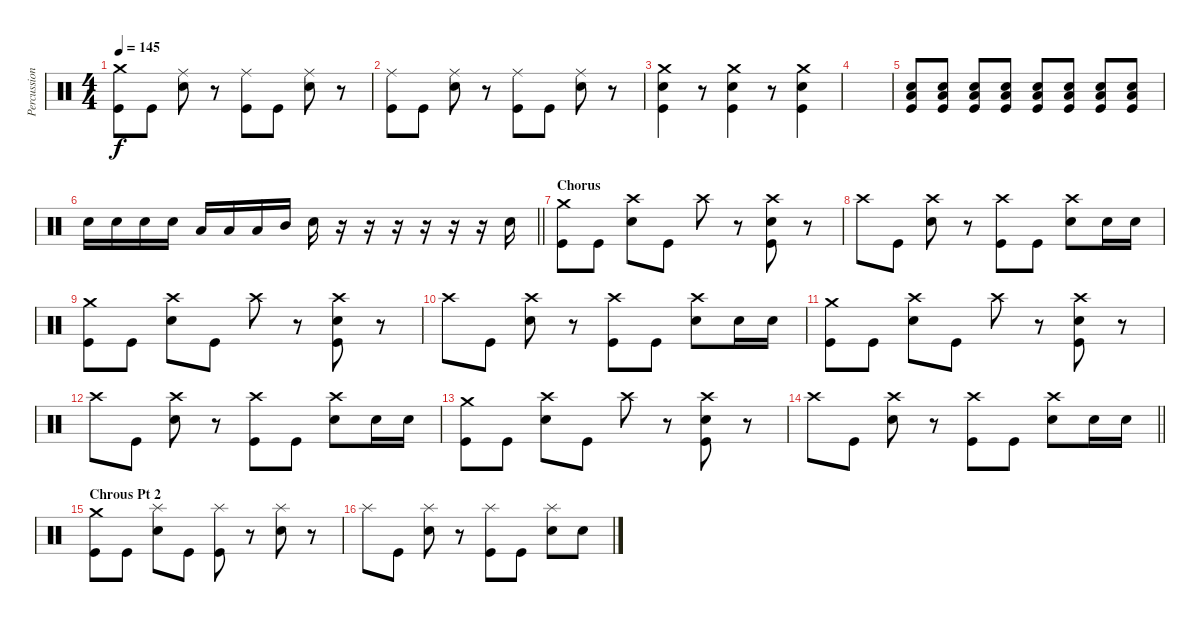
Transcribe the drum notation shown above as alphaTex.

\track ("Percussion" "Percussion") {instrument percussion}
\staff {score}
\articulation defaults
\ts (4 4)
\tempo 145
\clef neutral
\ks c
("Crash medium (hit)" "Kick (hit)").8{dy f} "Kick (hit)".8 ("Ride (middle)" "Snare (hit) 2").8 r.8 ("Ride (middle)" "Kick (hit)").8 "Kick (hit)".8 ("Ride (middle)" "Snare (hit) 2").8 r.8 |
("Ride (middle)" "Kick (hit)").8 "Kick (hit)".8 ("Ride (middle)" "Snare (hit) 2").8 r.8 ("Ride (middle)" "Kick (hit)").8 "Kick (hit)".8 ("Ride (middle)" "Snare (hit) 2").8 r.8 |
("Crash medium (hit)" "Kick (hit)" "Snare (hit) 2").4 r.8 ("Crash medium (hit)" "Kick (hit)" "Snare (hit) 2").4 r.8 ("Crash medium (hit)" "Kick (hit)" "Snare (hit) 2").4 |
|
("Low Floor Tom (hit)" "Snare (hit) 2" "Kick (hit)").8 ("Low Floor Tom (hit)" "Snare (hit) 2" "Kick (hit)").8 ("Low Floor Tom (hit)" "Snare (hit) 2" "Kick (hit)").8 ("Low Floor Tom (hit)" "Snare (hit) 2" "Kick (hit)").8 ("Low Floor Tom (hit)" "Snare (hit) 2" "Kick (hit)").8 ("Low Floor Tom (hit)" "Snare (hit) 2" "Kick (hit)").8 ("Low Floor Tom (hit)" "Snare (hit) 2" "Kick (hit)").8 ("Low Floor Tom (hit)" "Snare (hit) 2" "Kick (hit)").8 |
\barLineRight lightlight "Snare (hit) 2".16 "Snare (hit) 2".16 "Snare (hit) 2".16 "Snare (hit) 2".16 "Low Tom (hit)".16 "Low Tom (hit)".16 "Low Tom (hit)".16 "Mid Tom (hit)".16 "Snare (hit) 2".16
r.16 r.16 r.16 r.16 r.16 r.16 "Snare (hit) 2".16 |
\section ("" "Chorus")
("Crash medium (hit)" "Kick (hit)").8 "Kick (hit)".8 ("Crash high (hit)" "Snare (hit) 2").8 "Kick (hit)".8 "Crash high (hit)".8 r.8 ("Crash high (hit)" "Snare (hit) 2" "Kick (hit)").8 r.8 |
"Crash high (hit)".8 "Kick (hit)".8 ("Crash high (hit)" "Snare (hit) 2").8 r.8 ("Crash high (hit)" "Kick (hit)").8 "Kick (hit)".8 ("Crash high (hit)" "Snare (hit) 2").8 "Snare (hit) 2".16 "Snare (hit) 2".16 |
("Crash medium (hit)" "Kick (hit)").8 "Kick (hit)".8 ("Crash high (hit)" "Snare (hit) 2").8 "Kick (hit)".8 "Crash high (hit)".8 r.8 ("Crash high (hit)" "Snare (hit) 2" "Kick (hit)").8 r.8 |
"Crash high (hit)".8 "Kick (hit)".8 ("Crash high (hit)" "Snare (hit) 2").8 r.8 ("Crash high (hit)" "Kick (hit)").8 "Kick (hit)".8 ("Crash high (hit)" "Snare (hit) 2").8 "Snare (hit) 2".16 "Snare (hit) 2".16 |
("Crash medium (hit)" "Kick (hit)").8 "Kick (hit)".8 ("Crash high (hit)" "Snare (hit) 2").8 "Kick (hit)".8 "Crash high (hit)".8 r.8 ("Crash high (hit)" "Snare (hit) 2" "Kick (hit)").8 r.8 |
"Crash high (hit)".8 "Kick (hit)".8 ("Crash high (hit)" "Snare (hit) 2").8 r.8 ("Crash high (hit)" "Kick (hit)").8 "Kick (hit)".8 ("Crash high (hit)" "Snare (hit) 2").8 "Snare (hit) 2".16 "Snare (hit) 2".16 |
("Crash medium (hit)" "Kick (hit)").8 "Kick (hit)".8 ("Crash high (hit)" "Snare (hit) 2").8 "Kick (hit)".8 "Crash high (hit)".8 r.8 ("Crash high (hit)" "Snare (hit) 2" "Kick (hit)").8 r.8 |
\barLineRight lightlight "Crash high (hit)".8 "Kick (hit)".8
("Crash high (hit)" "Snare (hit) 2").8 r.8 ("Crash high (hit)" "Kick (hit)").8 "Kick (hit)".8 ("Crash high (hit)" "Snare (hit) 2").8 "Snare (hit) 2".16 "Snare (hit) 2".16 |
\section ("" "Chrous Pt 2")
("Crash medium (hit)" "Kick (hit)").8 "Kick (hit)".8 ("Splash (hit)" "Snare (hit) 2").8 "Kick (hit)".8 ("Splash (hit)" "Kick (hit)").8 r.8 ("Splash (hit)" "Snare (hit) 2").8 r.8 |
"Splash (hit)".8 "Kick (hit)".8 ("Splash (hit)" "Snare (hit) 2").8 r.8 ("Splash (hit)" "Kick (hit)").8 "Kick (hit)".8 ("Splash (hit)" "Snare (hit) 2").8 "Snare (hit) 2".8
